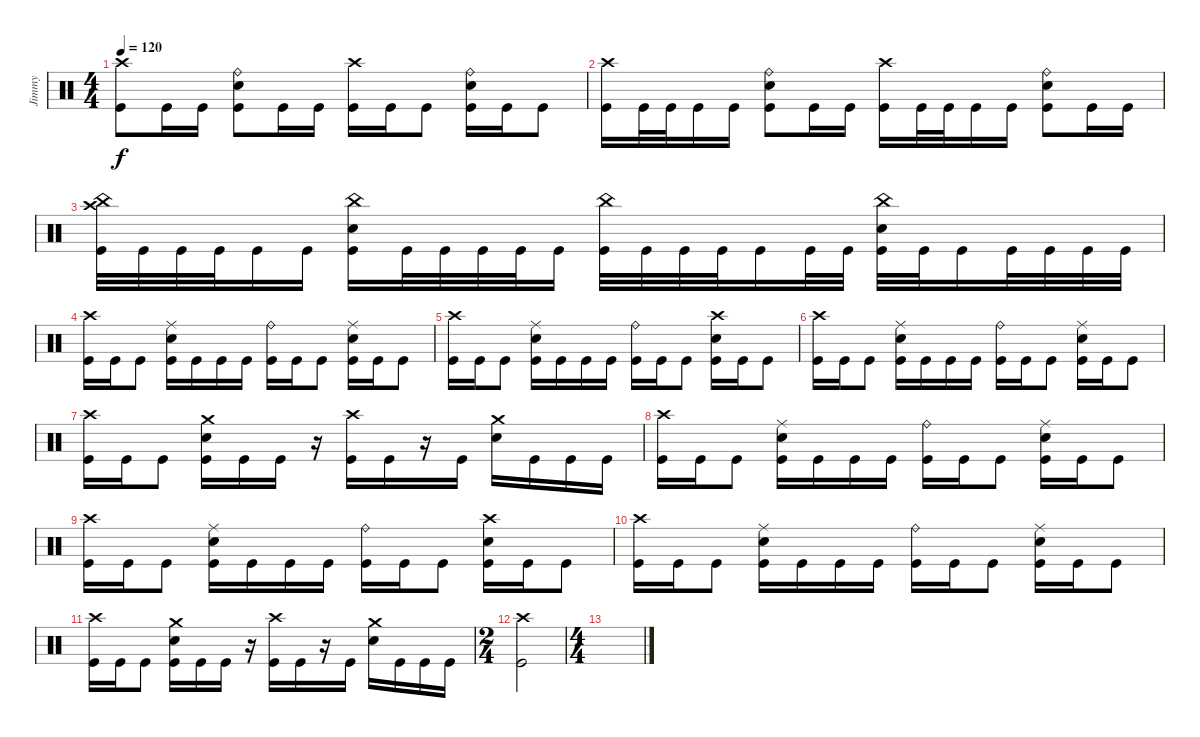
\track ("Jimmy" "Jimmy") {instrument percussion}
\staff {score}
\articulation defaults
\ts (4 4)
\tempo 120
\clef neutral
\ks c
("Crash high (hit)" "Kick (hit)").8{dy f} "Kick (hit)".16 "Kick (hit)".16 ("Snare (hit) 2" "Kick (hit)" "Ride (bell)").8 "Kick (hit)".16 "Kick (hit)".16 ("Crash high (hit)" "Kick (hit)").16 "Kick (hit)".16 "Kick (hit)".8 ("Snare (hit) 2" "Kick (hit)" "Ride (bell)").16 "Kick (hit)".16 "Kick (hit)".8 |
("Crash high (hit)" "Kick (hit)").16 "Kick (hit)".32 "Kick (hit)".32 "Kick (hit)".16 "Kick (hit)".16 ("Snare (hit) 2" "Kick (hit)" "Ride (bell)").8 "Kick (hit)".16 "Kick (hit)".16 ("Crash high (hit)" "Kick (hit)").16 "Kick (hit)".32 "Kick (hit)".32 "Kick (hit)".16 "Kick (hit)".16 ("Ride (bell)" "Kick (hit)" "Snare (hit) 2").8 "Kick (hit)".16 "Kick (hit)".16 |
("Crash high (hit)" "Kick (hit)" "China (hit)").32 "Kick (hit)".32 "Kick (hit)".32 "Kick (hit)".32 "Kick (hit)".16 "Kick (hit)".16 ("Snare (hit) 2" "Kick (hit)" "China (hit)").16 "Kick (hit)".32 "Kick (hit)".32 "Kick (hit)".32 "Kick (hit)".32 "Kick (hit)".16 ("China (hit)" "Kick (hit)").32 "Kick (hit)".32 "Kick (hit)".32 "Kick (hit)".32 "Kick (hit)".16 "Kick (hit)".32 "Kick (hit)".32 ("Snare (hit) 2" "Kick (hit)" "China (hit)").32 "Kick (hit)".32 "Kick (hit)".16 "Kick (hit)".32 "Kick (hit)".32 "Kick (hit)".32 "Kick (hit)".32 |
("Kick (hit)" "Crash high (hit)").16 "Kick (hit)".16 "Kick (hit)".8 ("Snare (hit) 2" "Kick (hit)" "Ride (middle)").16 "Kick (hit)".16 "Kick (hit)".16 "Kick (hit)".16 ("Ride (bell)" "Kick (hit)").16 "Kick (hit)".16 "Kick (hit)".8 ("Snare (hit) 2" "Kick (hit)" "Ride (middle)").16 "Kick (hit)".16 "Kick (hit)".8 |
("Kick (hit)" "Crash high (hit)").16 "Kick (hit)".16 "Kick (hit)".8 ("Snare (hit) 2" "Kick (hit)" "Ride (middle)").16 "Kick (hit)".16 "Kick (hit)".16 "Kick (hit)".16 ("Ride (bell)" "Kick (hit)").16 "Kick (hit)".16 "Kick (hit)".8 ("Snare (hit) 2" "Kick (hit)" "Crash high (hit)").16 "Kick (hit)".16 "Kick (hit)".8 |
("Kick (hit)" "Crash high (hit)").16 "Kick (hit)".16 "Kick (hit)".8 ("Snare (hit) 2" "Kick (hit)" "Ride (middle)").16 "Kick (hit)".16 "Kick (hit)".16 "Kick (hit)".16 ("Ride (bell)" "Kick (hit)").16 "Kick (hit)".16 "Kick (hit)".8 ("Snare (hit) 2" "Kick (hit)" "Ride (middle)").16 "Kick (hit)".16 "Kick (hit)".8 |
("Kick (hit)" "Crash high (hit)").16 "Kick (hit)".16 "Kick (hit)".8 ("Snare (hit) 2" "Kick (hit)" "Crash medium (hit)").16 "Kick (hit)".16 "Kick (hit)".16 r.16 ("Crash high (hit)" "Kick (hit)").16 "Kick (hit)".16 r.16 "Kick (hit)".16 ("Snare (hit) 2" "Crash medium (hit)").16 "Kick (hit)".16 "Kick (hit)".16 "Kick (hit)".16 |
("Kick (hit)" "Crash high (hit)").16 "Kick (hit)".16 "Kick (hit)".8 ("Snare (hit) 2" "Kick (hit)" "Ride (middle)").16 "Kick (hit)".16 "Kick (hit)".16 "Kick (hit)".16 ("Ride (bell)" "Kick (hit)").16 "Kick (hit)".16 "Kick (hit)".8 ("Snare (hit) 2" "Kick (hit)" "Ride (middle)").16 "Kick (hit)".16 "Kick (hit)".8 |
("Kick (hit)" "Crash high (hit)").16 "Kick (hit)".16 "Kick (hit)".8 ("Snare (hit) 2" "Kick (hit)" "Ride (middle)").16 "Kick (hit)".16 "Kick (hit)".16 "Kick (hit)".16 ("Ride (bell)" "Kick (hit)").16 "Kick (hit)".16 "Kick (hit)".8 ("Snare (hit) 2" "Kick (hit)" "Crash high (hit)").16 "Kick (hit)".16 "Kick (hit)".8 |
("Kick (hit)" "Crash high (hit)").16 "Kick (hit)".16 "Kick (hit)".8 ("Snare (hit) 2" "Kick (hit)" "Ride (middle)").16 "Kick (hit)".16 "Kick (hit)".16 "Kick (hit)".16 ("Ride (bell)" "Kick (hit)").16 "Kick (hit)".16 "Kick (hit)".8 ("Snare (hit) 2" "Kick (hit)" "Ride (middle)").16 "Kick (hit)".16 "Kick (hit)".8 |
("Kick (hit)" "Crash high (hit)").16 "Kick (hit)".16 "Kick (hit)".8 ("Snare (hit) 2" "Kick (hit)" "Crash medium (hit)").16 "Kick (hit)".16 "Kick (hit)".16 r.16 ("Crash high (hit)" "Kick (hit)").16 "Kick (hit)".16 r.16 "Kick (hit)".16 ("Snare (hit) 2" "Crash medium (hit)").16 "Kick (hit)".16 "Kick (hit)".16 "Kick (hit)".16 |
\ts (2 4)
("Kick (hit)" "Crash high (hit)").2 |
\ts (4 4)
